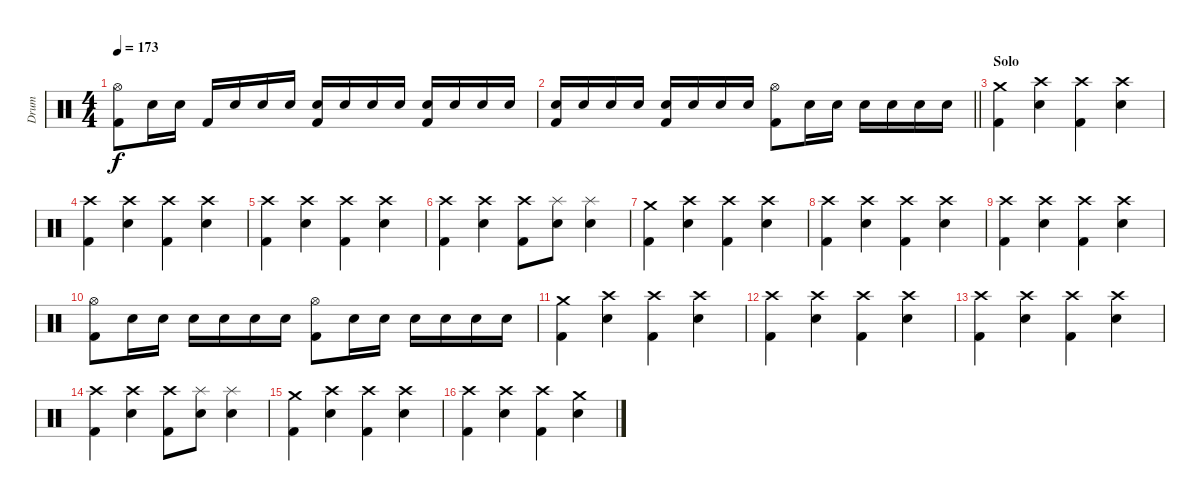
\track ("Drum" "Drum") {instrument percussion}
\staff {score}
\articulation defaults
\ts (4 4)
\tempo 173
\clef neutral
\ks c
("Kick (hit) 2" "Hi-Hat (open)").8{dy f} "Snare (hit) 2".16 "Snare (hit) 2".16 "Kick (hit) 2".16 "Snare (hit) 2".16 "Snare (hit) 2".16 "Snare (hit) 2".16 ("Snare (hit) 2" "Kick (hit) 2").16 "Snare (hit) 2".16 "Snare (hit) 2".16 "Snare (hit) 2".16 ("Snare (hit) 2" "Kick (hit) 2").16 "Snare (hit) 2".16 "Snare (hit) 2".16 "Snare (hit) 2".16 |
\barLineRight lightlight
("Snare (hit) 2" "Kick (hit) 2").16 "Snare (hit) 2".16 "Snare (hit) 2".16 "Snare (hit) 2".16 ("Snare (hit) 2" "Kick (hit) 2").16 "Snare (hit) 2".16 "Snare (hit) 2".16 "Snare (hit) 2".16 ("Hi-Hat (open)" "Kick (hit) 2").8 "Snare (hit) 2".16 "Snare (hit) 2".16 "Snare (hit) 2".16 "Snare (hit) 2".16 "Snare (hit) 2".16 "Snare (hit) 2".16 |
\section ("" "Solo")
("Kick (hit) 2" "Crash medium (hit)").4 ("Snare (hit) 2" "Crash high (hit)").4 ("Kick (hit) 2" "Crash high (hit)").4 ("Snare (hit) 2" "Crash high (hit)").4 |
("Kick (hit) 2" "Crash high (hit)").4 ("Snare (hit) 2" "Crash high (hit)").4 ("Kick (hit) 2" "Crash high (hit)").4 ("Snare (hit) 2" "Crash high (hit)").4 |
("Kick (hit) 2" "Crash high (hit)").4 ("Snare (hit) 2" "Crash high (hit)").4 ("Kick (hit) 2" "Crash high (hit)").4 ("Snare (hit) 2" "Crash high (hit)").4 |
("Kick (hit) 2" "Crash high (hit)").4 ("Snare (hit) 2" "Crash high (hit)").4 ("Kick (hit) 2" "Crash high (hit)").8 ("Snare (hit) 2" "Splash (hit)").8 ("Snare (hit) 2" "Splash (hit)").4 |
("Kick (hit) 2" "Crash medium (hit)").4 ("Snare (hit) 2" "Crash high (hit)").4 ("Kick (hit) 2" "Crash high (hit)").4 ("Snare (hit) 2" "Crash high (hit)").4 |
("Kick (hit) 2" "Crash high (hit)").4 ("Snare (hit) 2" "Crash high (hit)").4 ("Kick (hit) 2" "Crash high (hit)").4 ("Snare (hit) 2" "Crash high (hit)").4 |
("Kick (hit) 2" "Crash high (hit)").4 ("Snare (hit) 2" "Crash high (hit)").4 ("Kick (hit) 2" "Crash high (hit)").4 ("Snare (hit) 2" "Crash high (hit)").4 |
("Kick (hit) 2" "Hi-Hat (open)").8 "Snare (hit) 2".16 "Snare (hit) 2".16 "Snare (hit) 2".16 "Snare (hit) 2".16 "Snare (hit) 2".16 "Snare (hit) 2".16 ("Hi-Hat (open)" "Kick (hit) 2").8 "Snare (hit) 2".16 "Snare (hit) 2".16 "Snare (hit) 2".16 "Snare (hit) 2".16 "Snare (hit) 2".16 "Snare (hit) 2".16 |
("Kick (hit) 2" "Crash medium (hit)").4 ("Snare (hit) 2" "Crash high (hit)").4 ("Kick (hit) 2" "Crash high (hit)").4 ("Snare (hit) 2" "Crash high (hit)").4 |
("Kick (hit) 2" "Crash high (hit)").4 ("Snare (hit) 2" "Crash high (hit)").4 ("Kick (hit) 2" "Crash high (hit)").4 ("Snare (hit) 2" "Crash high (hit)").4 |
("Kick (hit) 2" "Crash high (hit)").4 ("Snare (hit) 2" "Crash high (hit)").4 ("Kick (hit) 2" "Crash high (hit)").4 ("Snare (hit) 2" "Crash high (hit)").4 |
("Kick (hit) 2" "Crash high (hit)").4 ("Snare (hit) 2" "Crash high (hit)").4 ("Kick (hit) 2" "Crash high (hit)").8 ("Snare (hit) 2" "Splash (hit)").8 ("Snare (hit) 2" "Splash (hit)").4 |
("Kick (hit) 2" "Crash medium (hit)").4 ("Snare (hit) 2" "Crash high (hit)").4 ("Kick (hit) 2" "Crash high (hit)").4 ("Snare (hit) 2" "Crash high (hit)").4 |
("Kick (hit) 2" "Crash high (hit)").4 ("Snare (hit) 2" "Crash high (hit)").4 ("Kick (hit) 2" "Crash high (hit)").4 ("Snare (hit) 2" "Crash medium (hit)").4
